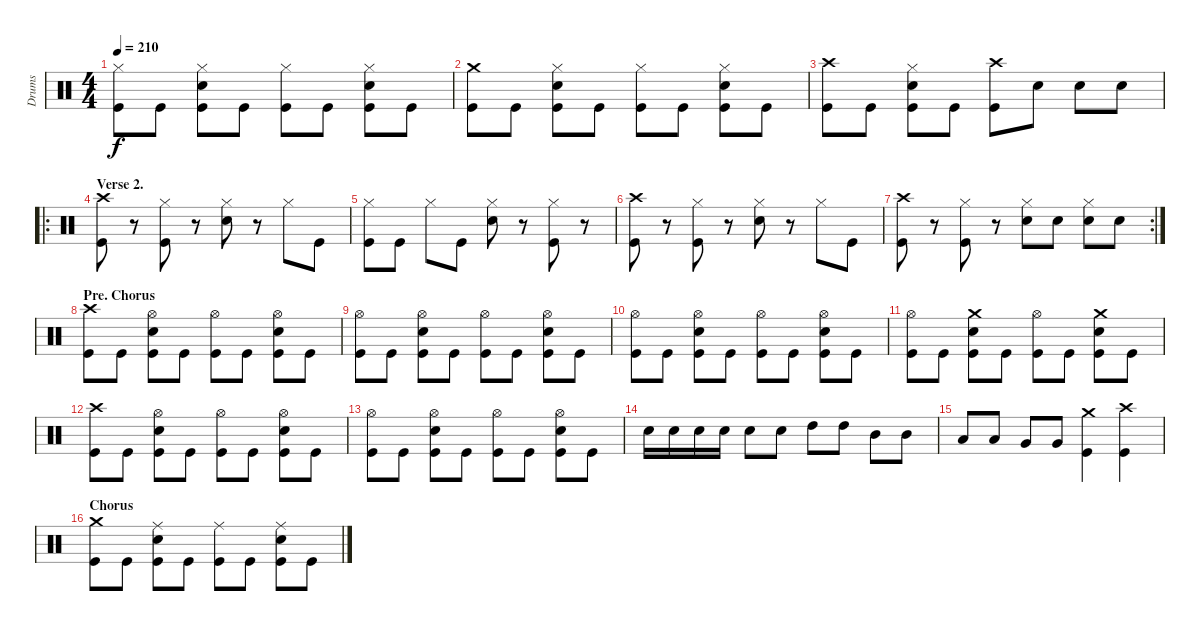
\track ("Drums" "Drums") {instrument percussion}
\staff {score}
\articulation defaults
\ts (4 4)
\tempo 210
\clef neutral
\ks c
("Hi-Hat (closed)" "Kick (hit)").8{dy f} "Kick (hit)".8 ("Hi-Hat (closed)" "Electric Snare (hit)" "Kick (hit)").8 "Kick (hit)".8 ("Hi-Hat (closed)" "Kick (hit)").8 "Kick (hit)".8 ("Hi-Hat (closed)" "Electric Snare (hit)" "Kick (hit)").8 "Kick (hit)".8 |
("Crash medium (hit)" "Kick (hit)").8 "Kick (hit)".8 ("Hi-Hat (closed)" "Electric Snare (hit)" "Kick (hit)").8 "Kick (hit)".8 ("Hi-Hat (closed)" "Kick (hit)").8 "Kick (hit)".8 ("Hi-Hat (closed)" "Electric Snare (hit)" "Kick (hit)").8 "Kick (hit)".8 |
("Crash high (hit)" "Kick (hit)").8 "Kick (hit)".8 ("Hi-Hat (closed)" "Electric Snare (hit)" "Kick (hit)").8 "Kick (hit)".8 ("Crash high (hit)" "Kick (hit)").8 "Electric Snare (hit)".8 "Electric Snare (hit)".8 "Electric Snare (hit)".8 |
\ro
\section ("" "Verse 2.")
("Crash high (hit)" "Kick (hit)").8 r.8 ("Hi-Hat (closed)" "Kick (hit)").8 r.8 ("Hi-Hat (closed)" "Electric Snare (hit)").8 r.8 "Hi-Hat (closed)".8 "Kick (hit)".8 |
("Hi-Hat (closed)" "Kick (hit)").8 "Kick (hit)".8 "Hi-Hat (closed)".8 "Kick (hit)".8 ("Hi-Hat (closed)" "Electric Snare (hit)").8 r.8 ("Hi-Hat (closed)" "Kick (hit)").8 r.8 |
("Crash high (hit)" "Kick (hit)").8 r.8 ("Hi-Hat (closed)" "Kick (hit)").8 r.8 ("Hi-Hat (closed)" "Electric Snare (hit)").8 r.8 "Hi-Hat (closed)".8 "Kick (hit)".8 |
\rc 2
("Crash high (hit)" "Kick (hit)").8 r.8 ("Hi-Hat (closed)" "Kick (hit)").8 r.8 ("Hi-Hat (closed)" "Electric Snare (hit)").8 "Electric Snare (hit)".8 ("Hi-Hat (closed)" "Electric Snare (hit)").8 "Electric Snare (hit)".8 |
\section ("" "Pre. Chorus")
("Crash high (hit)" "Kick (hit)").8 "Kick (hit)".8 ("Hi-Hat (open)" "Electric Snare (hit)" "Kick (hit)").8 "Kick (hit)".8 ("Hi-Hat (open)" "Kick (hit)").8 "Kick (hit)".8 ("Hi-Hat (open)" "Electric Snare (hit)" "Kick (hit)").8 "Kick (hit)".8 |
("Hi-Hat (open)" "Kick (hit)").8 "Kick (hit)".8 ("Hi-Hat (open)" "Electric Snare (hit)" "Kick (hit)").8 "Kick (hit)".8 ("Hi-Hat (open)" "Kick (hit)").8 "Kick (hit)".8 ("Hi-Hat (open)" "Electric Snare (hit)" "Kick (hit)").8 "Kick (hit)".8 |
("Hi-Hat (open)" "Kick (hit)").8 "Kick (hit)".8 ("Hi-Hat (open)" "Electric Snare (hit)" "Kick (hit)").8 "Kick (hit)".8 ("Hi-Hat (open)" "Kick (hit)").8 "Kick (hit)".8 ("Hi-Hat (open)" "Electric Snare (hit)" "Kick (hit)").8 "Kick (hit)".8 |
("Hi-Hat (open)" "Kick (hit)").8 "Kick (hit)".8 ("Crash medium (hit)" "Electric Snare (hit)" "Kick (hit)").8 "Kick (hit)".8 ("Hi-Hat (open)" "Kick (hit)").8 "Kick (hit)".8 ("Crash medium (hit)" "Electric Snare (hit)" "Kick (hit)").8 "Kick (hit)".8 |
("Crash high (hit)" "Kick (hit)").8 "Kick (hit)".8 ("Hi-Hat (open)" "Electric Snare (hit)" "Kick (hit)").8 "Kick (hit)".8 ("Hi-Hat (open)" "Kick (hit)").8 "Kick (hit)".8 ("Hi-Hat (open)" "Electric Snare (hit)" "Kick (hit)").8 "Kick (hit)".8 |
("Hi-Hat (open)" "Kick (hit)").8 "Kick (hit)".8 ("Hi-Hat (open)" "Electric Snare (hit)" "Kick (hit)").8 "Kick (hit)".8 ("Hi-Hat (open)" "Kick (hit)").8 "Kick (hit)".8 ("Hi-Hat (open)" "Electric Snare (hit)" "Kick (hit)").8 "Kick (hit)".8 |
"Electric Snare (hit)".16 "Electric Snare (hit)".16 "Electric Snare (hit)".16 "Electric Snare (hit)".16 "Electric Snare (hit)".8 "Electric Snare (hit)".8 "High Tom (hit)".8 "High Tom (hit)".8 "Mid Tom (hit)".8 "Mid Tom (hit)".8 |
"Low Tom (hit)".8 "Low Tom (hit)".8 "Very Low Tom (hit)".8 "Very Low Tom (hit)".8 ("Crash medium (hit)" "Kick (hit)").4 ("Crash high (hit)" "Kick (hit)").4 |
\section ("" "Chorus")
("Crash medium (hit)" "Kick (hit)").8 "Kick (hit)".8 ("Ride (middle)" "Electric Snare (hit)" "Kick (hit)").8 "Kick (hit)".8 ("Ride (middle)" "Kick (hit)").8 "Kick (hit)".8 ("Ride (middle)" "Electric Snare (hit)" "Kick (hit)").8 "Kick (hit)".8
